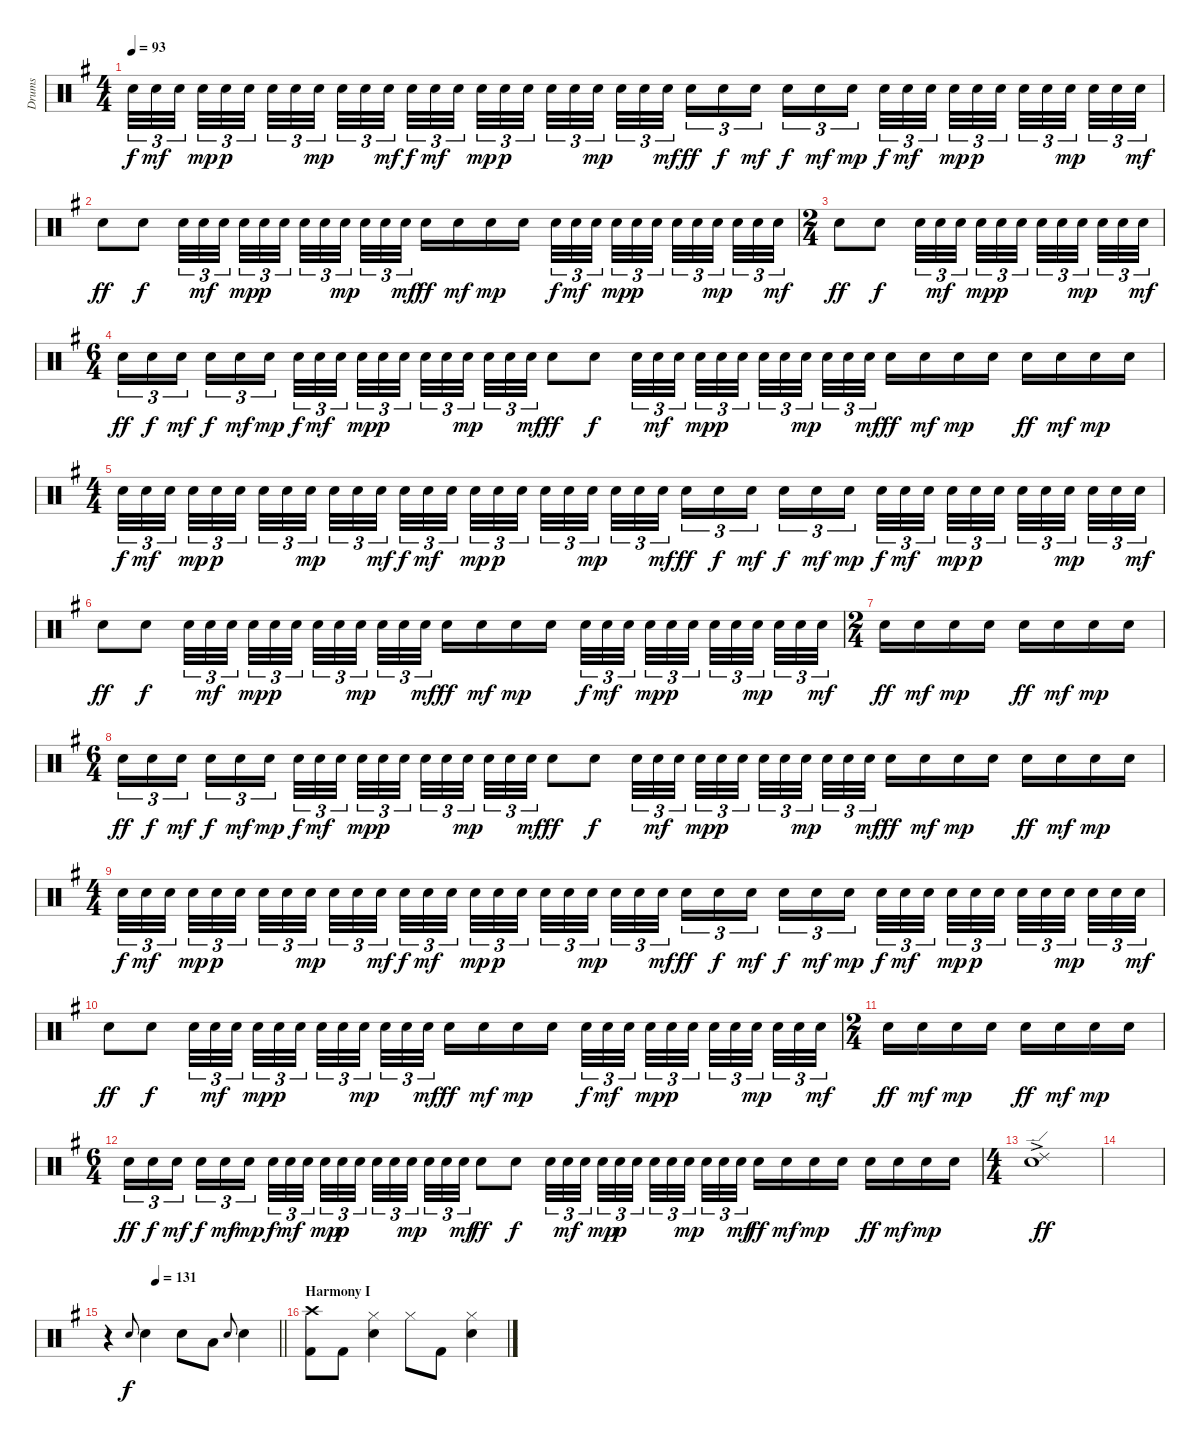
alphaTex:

\track ("Drums" "Drums") {instrument percussion}
\staff {score}
\articulation defaults
\ts (4 4)
\tempo 93
\clef neutral
\ks g "Electric Snare (hit)".32{tu (3 2) dy f} "Electric Snare (hit)".32{tu (3 2) dy mf} "Electric Snare (hit)".32{tu (3 2) beam splitsecondary} "Electric Snare (hit)".32{tu (3 2) dy mp} "Electric Snare (hit)".32{tu (3 2) dy p} "Electric Snare (hit)".32{tu (3 2) beam splitsecondary} "Electric Snare (hit)".32{tu (3 2)} "Electric Snare (hit)".32{tu (3 2)} "Electric Snare (hit)".32{tu (3 2) dy mp beam splitsecondary} "Electric Snare (hit)".32{tu (3 2)} "Electric Snare (hit)".32{tu (3 2)} "Electric Snare (hit)".32{tu (3 2) dy mf} "Electric Snare (hit)".32{tu (3 2) dy f} "Electric Snare (hit)".32{tu (3 2) dy mf} "Electric Snare (hit)".32{tu (3 2) beam splitsecondary} "Electric Snare (hit)".32{tu (3 2) dy mp} "Electric Snare (hit)".32{tu (3 2) dy p} "Electric Snare (hit)".32{tu (3 2) beam splitsecondary} "Electric Snare (hit)".32{tu (3 2)} "Electric Snare (hit)".32{tu (3 2)} "Electric Snare (hit)".32{tu (3 2) dy mp beam splitsecondary} "Electric Snare (hit)".32{tu (3 2)} "Electric Snare (hit)".32{tu (3 2)} "Electric Snare (hit)".32{tu (3 2) dy mf} "Electric Snare (hit)".16{tu (3 2) dy ff} "Electric Snare (hit)".16{tu (3 2) dy f} "Electric Snare (hit)".16{tu (3 2) dy mf beam splitsecondary} "Electric Snare (hit)".16{tu (3 2) dy f} "Electric Snare (hit)".16{tu (3 2) dy mf} "Electric Snare (hit)".16{tu (3 2) dy mp} "Electric Snare (hit)".32{tu (3 2) dy f} "Electric Snare (hit)".32{tu (3 2) dy mf} "Electric Snare (hit)".32{tu (3 2) beam splitsecondary} "Electric Snare (hit)".32{tu (3 2) dy mp} "Electric Snare (hit)".32{tu (3 2) dy p} "Electric Snare (hit)".32{tu (3 2) beam splitsecondary} "Electric Snare (hit)".32{tu (3 2)} "Electric Snare (hit)".32{tu (3 2)} "Electric Snare (hit)".32{tu (3 2) dy mp beam splitsecondary} "Electric Snare (hit)".32{tu (3 2)} "Electric Snare (hit)".32{tu (3 2)} "Electric Snare (hit)".32{tu (3 2) dy mf}
|
"Electric Snare (hit)".8{dy ff} "Electric Snare (hit)".8{dy f} "Electric Snare (hit)".32{tu (3 2)} "Electric Snare (hit)".32{tu (3 2) dy mf} "Electric Snare (hit)".32{tu (3 2) beam splitsecondary} "Electric Snare (hit)".32{tu (3 2) dy mp} "Electric Snare (hit)".32{tu (3 2) dy p} "Electric Snare (hit)".32{tu (3 2) beam splitsecondary} "Electric Snare (hit)".32{tu (3 2)} "Electric Snare (hit)".32{tu (3 2)} "Electric Snare (hit)".32{tu (3 2) dy mp beam splitsecondary} "Electric Snare (hit)".32{tu (3 2)} "Electric Snare (hit)".32{tu (3 2)} "Electric Snare (hit)".32{tu (3 2) dy mf} "Electric Snare (hit)".16{dy ff} "Electric Snare (hit)".16{dy mf} "Electric Snare (hit)".16{dy mp} "Electric Snare (hit)".16 "Electric Snare (hit)".32{tu (3 2) dy f} "Electric Snare (hit)".32{tu (3 2) dy mf} "Electric Snare (hit)".32{tu (3 2) beam splitsecondary} "Electric Snare (hit)".32{tu (3 2) dy mp} "Electric Snare (hit)".32{tu (3 2) dy p} "Electric Snare (hit)".32{tu (3 2) beam splitsecondary} "Electric Snare (hit)".32{tu (3 2)} "Electric Snare (hit)".32{tu (3 2)} "Electric Snare (hit)".32{tu (3 2) dy mp beam splitsecondary} "Electric Snare (hit)".32{tu (3 2)} "Electric Snare (hit)".32{tu (3 2)} "Electric Snare (hit)".32{tu (3 2) dy mf} |
\ts (2 4)
"Electric Snare (hit)".8{dy ff} "Electric Snare (hit)".8{dy f} "Electric Snare (hit)".32{tu (3 2)} "Electric Snare (hit)".32{tu (3 2) dy mf} "Electric Snare (hit)".32{tu (3 2) beam splitsecondary} "Electric Snare (hit)".32{tu (3 2) dy mp} "Electric Snare (hit)".32{tu (3 2) dy p} "Electric Snare (hit)".32{tu (3 2) beam splitsecondary} "Electric Snare (hit)".32{tu (3 2)} "Electric Snare (hit)".32{tu (3 2)} "Electric Snare (hit)".32{tu (3 2) dy mp beam splitsecondary} "Electric Snare (hit)".32{tu (3 2)} "Electric Snare (hit)".32{tu (3 2)} "Electric Snare (hit)".32{tu (3 2) dy mf} |
\ts (6 4)
"Electric Snare (hit)".16{tu (3 2) dy ff} "Electric Snare (hit)".16{tu (3 2) dy f} "Electric Snare (hit)".16{tu (3 2) dy mf beam splitsecondary} "Electric Snare (hit)".16{tu (3 2) dy f} "Electric Snare (hit)".16{tu (3 2) dy mf} "Electric Snare (hit)".16{tu (3 2) dy mp beam splitsecondary} "Electric Snare (hit)".32{tu (3 2) dy f} "Electric Snare (hit)".32{tu (3 2) dy mf} "Electric Snare (hit)".32{tu (3 2) beam splitsecondary} "Electric Snare (hit)".32{tu (3 2) dy mp} "Electric Snare (hit)".32{tu (3 2) dy p} "Electric Snare (hit)".32{tu (3 2) beam splitsecondary} "Electric Snare (hit)".32{tu (3 2)} "Electric Snare (hit)".32{tu (3 2)} "Electric Snare (hit)".32{tu (3 2) dy mp beam splitsecondary} "Electric Snare (hit)".32{tu (3 2)} "Electric Snare (hit)".32{tu (3 2)} "Electric Snare (hit)".32{tu (3 2) dy mf} "Electric Snare (hit)".8{dy ff} "Electric Snare (hit)".8{dy f} "Electric Snare (hit)".32{tu (3 2)} "Electric Snare (hit)".32{tu (3 2) dy mf} "Electric Snare (hit)".32{tu (3 2) beam splitsecondary} "Electric Snare (hit)".32{tu (3 2) dy mp} "Electric Snare (hit)".32{tu (3 2) dy p} "Electric Snare (hit)".32{tu (3 2) beam splitsecondary} "Electric Snare (hit)".32{tu (3 2)} "Electric Snare (hit)".32{tu (3 2)} "Electric Snare (hit)".32{tu (3 2) dy mp beam splitsecondary} "Electric Snare (hit)".32{tu (3 2)} "Electric Snare (hit)".32{tu (3 2)} "Electric Snare (hit)".32{tu (3 2) dy mf beam splitsecondary} "Electric Snare (hit)".16{dy ff} "Electric Snare (hit)".16{dy mf} "Electric Snare (hit)".16{dy mp} "Electric Snare (hit)".16 "Electric Snare (hit)".16{dy ff} "Electric Snare (hit)".16{dy mf} "Electric Snare (hit)".16{dy mp} "Electric Snare (hit)".16 |
\ts (4 4)
"Electric Snare (hit)".32{tu (3 2) dy f} "Electric Snare (hit)".32{tu (3 2) dy mf} "Electric Snare (hit)".32{tu (3 2) beam splitsecondary} "Electric Snare (hit)".32{tu (3 2) dy mp} "Electric Snare (hit)".32{tu (3 2) dy p} "Electric Snare (hit)".32{tu (3 2) beam splitsecondary} "Electric Snare (hit)".32{tu (3 2)} "Electric Snare (hit)".32{tu (3 2)} "Electric Snare (hit)".32{tu (3 2) dy mp beam splitsecondary} "Electric Snare (hit)".32{tu (3 2)} "Electric Snare (hit)".32{tu (3 2)} "Electric Snare (hit)".32{tu (3 2) dy mf} "Electric Snare (hit)".32{tu (3 2) dy f} "Electric Snare (hit)".32{tu (3 2) dy mf} "Electric Snare (hit)".32{tu (3 2) beam splitsecondary} "Electric Snare (hit)".32{tu (3 2) dy mp} "Electric Snare (hit)".32{tu (3 2) dy p} "Electric Snare (hit)".32{tu (3 2) beam splitsecondary} "Electric Snare (hit)".32{tu (3 2)} "Electric Snare (hit)".32{tu (3 2)} "Electric Snare (hit)".32{tu (3 2) dy mp beam splitsecondary} "Electric Snare (hit)".32{tu (3 2)} "Electric Snare (hit)".32{tu (3 2)} "Electric Snare (hit)".32{tu (3 2) dy mf} "Electric Snare (hit)".16{tu (3 2) dy ff} "Electric Snare (hit)".16{tu (3 2) dy f} "Electric Snare (hit)".16{tu (3 2) dy mf beam splitsecondary} "Electric Snare (hit)".16{tu (3 2) dy f} "Electric Snare (hit)".16{tu (3 2) dy mf} "Electric Snare (hit)".16{tu (3 2) dy mp} "Electric Snare (hit)".32{tu (3 2) dy f} "Electric Snare (hit)".32{tu (3 2) dy mf} "Electric Snare (hit)".32{tu (3 2) beam splitsecondary} "Electric Snare (hit)".32{tu (3 2) dy mp} "Electric Snare (hit)".32{tu (3 2) dy p} "Electric Snare (hit)".32{tu (3 2) beam splitsecondary} "Electric Snare (hit)".32{tu (3 2)} "Electric Snare (hit)".32{tu (3 2)} "Electric Snare (hit)".32{tu (3 2) dy mp beam splitsecondary} "Electric Snare (hit)".32{tu (3 2)} "Electric Snare (hit)".32{tu (3 2)} "Electric Snare (hit)".32{tu (3 2) dy mf} |
"Electric Snare (hit)".8{dy ff} "Electric Snare (hit)".8{dy f} "Electric Snare (hit)".32{tu (3 2)} "Electric Snare (hit)".32{tu (3 2) dy mf} "Electric Snare (hit)".32{tu (3 2) beam splitsecondary} "Electric Snare (hit)".32{tu (3 2) dy mp} "Electric Snare (hit)".32{tu (3 2) dy p} "Electric Snare (hit)".32{tu (3 2) beam splitsecondary} "Electric Snare (hit)".32{tu (3 2)} "Electric Snare (hit)".32{tu (3 2)} "Electric Snare (hit)".32{tu (3 2) dy mp beam splitsecondary} "Electric Snare (hit)".32{tu (3 2)} "Electric Snare (hit)".32{tu (3 2)} "Electric Snare (hit)".32{tu (3 2) dy mf} "Electric Snare (hit)".16{dy ff} "Electric Snare (hit)".16{dy mf} "Electric Snare (hit)".16{dy mp} "Electric Snare (hit)".16 "Electric Snare (hit)".32{tu (3 2) dy f} "Electric Snare (hit)".32{tu (3 2) dy mf} "Electric Snare (hit)".32{tu (3 2) beam splitsecondary} "Electric Snare (hit)".32{tu (3 2) dy mp} "Electric Snare (hit)".32{tu (3 2) dy p} "Electric Snare (hit)".32{tu (3 2) beam splitsecondary} "Electric Snare (hit)".32{tu (3 2)} "Electric Snare (hit)".32{tu (3 2)} "Electric Snare (hit)".32{tu (3 2) dy mp beam splitsecondary} "Electric Snare (hit)".32{tu (3 2)} "Electric Snare (hit)".32{tu (3 2)} "Electric Snare (hit)".32{tu (3 2) dy mf} |
\ts (2 4)
"Electric Snare (hit)".16{dy ff} "Electric Snare (hit)".16{dy mf} "Electric Snare (hit)".16{dy mp} "Electric Snare (hit)".16 "Electric Snare (hit)".16{dy ff} "Electric Snare (hit)".16{dy mf} "Electric Snare (hit)".16{dy mp} "Electric Snare (hit)".16 |
\ts (6 4)
"Electric Snare (hit)".16{tu (3 2) dy ff} "Electric Snare (hit)".16{tu (3 2) dy f} "Electric Snare (hit)".16{tu (3 2) dy mf beam splitsecondary} "Electric Snare (hit)".16{tu (3 2) dy f} "Electric Snare (hit)".16{tu (3 2) dy mf} "Electric Snare (hit)".16{tu (3 2) dy mp beam splitsecondary} "Electric Snare (hit)".32{tu (3 2) dy f} "Electric Snare (hit)".32{tu (3 2) dy mf} "Electric Snare (hit)".32{tu (3 2) beam splitsecondary} "Electric Snare (hit)".32{tu (3 2) dy mp} "Electric Snare (hit)".32{tu (3 2) dy p} "Electric Snare (hit)".32{tu (3 2) beam splitsecondary} "Electric Snare (hit)".32{tu (3 2)} "Electric Snare (hit)".32{tu (3 2)} "Electric Snare (hit)".32{tu (3 2) dy mp beam splitsecondary} "Electric Snare (hit)".32{tu (3 2)} "Electric Snare (hit)".32{tu (3 2)} "Electric Snare (hit)".32{tu (3 2) dy mf} "Electric Snare (hit)".8{dy ff} "Electric Snare (hit)".8{dy f} "Electric Snare (hit)".32{tu (3 2)} "Electric Snare (hit)".32{tu (3 2) dy mf} "Electric Snare (hit)".32{tu (3 2) beam splitsecondary} "Electric Snare (hit)".32{tu (3 2) dy mp} "Electric Snare (hit)".32{tu (3 2) dy p} "Electric Snare (hit)".32{tu (3 2) beam splitsecondary} "Electric Snare (hit)".32{tu (3 2)} "Electric Snare (hit)".32{tu (3 2)} "Electric Snare (hit)".32{tu (3 2) dy mp beam splitsecondary} "Electric Snare (hit)".32{tu (3 2)} "Electric Snare (hit)".32{tu (3 2)} "Electric Snare (hit)".32{tu (3 2) dy mf beam splitsecondary} "Electric Snare (hit)".16{dy ff} "Electric Snare (hit)".16{dy mf} "Electric Snare (hit)".16{dy mp} "Electric Snare (hit)".16 "Electric Snare (hit)".16{dy ff} "Electric Snare (hit)".16{dy mf} "Electric Snare (hit)".16{dy mp} "Electric Snare (hit)".16 |
\ts (4 4)
"Electric Snare (hit)".32{tu (3 2) dy f} "Electric Snare (hit)".32{tu (3 2) dy mf} "Electric Snare (hit)".32{tu (3 2) beam splitsecondary} "Electric Snare (hit)".32{tu (3 2) dy mp} "Electric Snare (hit)".32{tu (3 2) dy p} "Electric Snare (hit)".32{tu (3 2) beam splitsecondary} "Electric Snare (hit)".32{tu (3 2)} "Electric Snare (hit)".32{tu (3 2)} "Electric Snare (hit)".32{tu (3 2) dy mp beam splitsecondary} "Electric Snare (hit)".32{tu (3 2)} "Electric Snare (hit)".32{tu (3 2)} "Electric Snare (hit)".32{tu (3 2) dy mf} "Electric Snare (hit)".32{tu (3 2) dy f} "Electric Snare (hit)".32{tu (3 2) dy mf} "Electric Snare (hit)".32{tu (3 2) beam splitsecondary} "Electric Snare (hit)".32{tu (3 2) dy mp} "Electric Snare (hit)".32{tu (3 2) dy p} "Electric Snare (hit)".32{tu (3 2) beam splitsecondary} "Electric Snare (hit)".32{tu (3 2)} "Electric Snare (hit)".32{tu (3 2)} "Electric Snare (hit)".32{tu (3 2) dy mp beam splitsecondary} "Electric Snare (hit)".32{tu (3 2)} "Electric Snare (hit)".32{tu (3 2)} "Electric Snare (hit)".32{tu (3 2) dy mf} "Electric Snare (hit)".16{tu (3 2) dy ff} "Electric Snare (hit)".16{tu (3 2) dy f} "Electric Snare (hit)".16{tu (3 2) dy mf beam splitsecondary} "Electric Snare (hit)".16{tu (3 2) dy f} "Electric Snare (hit)".16{tu (3 2) dy mf} "Electric Snare (hit)".16{tu (3 2) dy mp} "Electric Snare (hit)".32{tu (3 2) dy f} "Electric Snare (hit)".32{tu (3 2) dy mf} "Electric Snare (hit)".32{tu (3 2) beam splitsecondary} "Electric Snare (hit)".32{tu (3 2) dy mp} "Electric Snare (hit)".32{tu (3 2) dy p} "Electric Snare (hit)".32{tu (3 2) beam splitsecondary} "Electric Snare (hit)".32{tu (3 2)} "Electric Snare (hit)".32{tu (3 2)} "Electric Snare (hit)".32{tu (3 2) dy mp beam splitsecondary} "Electric Snare (hit)".32{tu (3 2)} "Electric Snare (hit)".32{tu (3 2)} "Electric Snare (hit)".32{tu (3 2) dy mf} |
"Electric Snare (hit)".8{dy ff} "Electric Snare (hit)".8{dy f} "Electric Snare (hit)".32{tu (3 2)} "Electric Snare (hit)".32{tu (3 2) dy mf} "Electric Snare (hit)".32{tu (3 2) beam splitsecondary} "Electric Snare (hit)".32{tu (3 2) dy mp} "Electric Snare (hit)".32{tu (3 2) dy p} "Electric Snare (hit)".32{tu (3 2) beam splitsecondary} "Electric Snare (hit)".32{tu (3 2)} "Electric Snare (hit)".32{tu (3 2)} "Electric Snare (hit)".32{tu (3 2) dy mp beam splitsecondary} "Electric Snare (hit)".32{tu (3 2)} "Electric Snare (hit)".32{tu (3 2)} "Electric Snare (hit)".32{tu (3 2) dy mf} "Electric Snare (hit)".16{dy ff} "Electric Snare (hit)".16{dy mf} "Electric Snare (hit)".16{dy mp} "Electric Snare (hit)".16 "Electric Snare (hit)".32{tu (3 2) dy f} "Electric Snare (hit)".32{tu (3 2) dy mf} "Electric Snare (hit)".32{tu (3 2) beam splitsecondary} "Electric Snare (hit)".32{tu (3 2) dy mp} "Electric Snare (hit)".32{tu (3 2) dy p} "Electric Snare (hit)".32{tu (3 2) beam splitsecondary} "Electric Snare (hit)".32{tu (3 2)} "Electric Snare (hit)".32{tu (3 2)} "Electric Snare (hit)".32{tu (3 2) dy mp beam splitsecondary} "Electric Snare (hit)".32{tu (3 2)} "Electric Snare (hit)".32{tu (3 2)} "Electric Snare (hit)".32{tu (3 2) dy mf} |
\ts (2 4)
"Electric Snare (hit)".16{dy ff} "Electric Snare (hit)".16{dy mf} "Electric Snare (hit)".16{dy mp} "Electric Snare (hit)".16 "Electric Snare (hit)".16{dy ff} "Electric Snare (hit)".16{dy mf} "Electric Snare (hit)".16{dy mp} "Electric Snare (hit)".16 |
\ts (6 4)
"Electric Snare (hit)".16{tu (3 2) dy ff} "Electric Snare (hit)".16{tu (3 2) dy f} "Electric Snare (hit)".16{tu (3 2) dy mf beam splitsecondary} "Electric Snare (hit)".16{tu (3 2) dy f} "Electric Snare (hit)".16{tu (3 2) dy mf} "Electric Snare (hit)".16{tu (3 2) dy mp beam splitsecondary} "Electric Snare (hit)".32{tu (3 2) dy f} "Electric Snare (hit)".32{tu (3 2) dy mf} "Electric Snare (hit)".32{tu (3 2) beam splitsecondary} "Electric Snare (hit)".32{tu (3 2) dy mp} "Electric Snare (hit)".32{tu (3 2) dy p} "Electric Snare (hit)".32{tu (3 2) beam splitsecondary} "Electric Snare (hit)".32{tu (3 2)} "Electric Snare (hit)".32{tu (3 2)} "Electric Snare (hit)".32{tu (3 2) dy mp beam splitsecondary} "Electric Snare (hit)".32{tu (3 2)} "Electric Snare (hit)".32{tu (3 2)} "Electric Snare (hit)".32{tu (3 2) dy mf} "Electric Snare (hit)".8{dy ff} "Electric Snare (hit)".8{dy f} "Electric Snare (hit)".32{tu (3 2)} "Electric Snare (hit)".32{tu (3 2) dy mf} "Electric Snare (hit)".32{tu (3 2) beam splitsecondary} "Electric Snare (hit)".32{tu (3 2) dy mp} "Electric Snare (hit)".32{tu (3 2) dy p} "Electric Snare (hit)".32{tu (3 2) beam splitsecondary} "Electric Snare (hit)".32{tu (3 2)} "Electric Snare (hit)".32{tu (3 2)} "Electric Snare (hit)".32{tu (3 2) dy mp beam splitsecondary} "Electric Snare (hit)".32{tu (3 2)} "Electric Snare (hit)".32{tu (3 2)} "Electric Snare (hit)".32{tu (3 2) dy mf beam splitsecondary} "Electric Snare (hit)".16{dy ff} "Electric Snare (hit)".16{dy mf} "Electric Snare (hit)".16{dy mp} "Electric Snare (hit)".16 "Electric Snare (hit)".16{dy ff} "Electric Snare (hit)".16{dy mf} "Electric Snare (hit)".16{dy mp} "Electric Snare (hit)".16 |
\ts (4 4)
("Ride (edge) 2"{ac} "Electric Snare (hit)").1{dy ff} |
|
\tempo (131 0.28125)
\barLineRight lightlight
r.4 "Electric Snare (hit)".8{gr onbeat dy f} "Electric Snare (hit)".4{volume 13} "Electric Snare (hit)".8 "Low Tom (hit)".8 "Electric Snare (hit)".8{gr onbeat} "Electric Snare (hit)".4 |
\section ("" "Harmony I")
("Crash high (hit)" "Kick (hit) 2").8 "Kick (hit) 2".8 ("Hi-Hat (closed)" "Electric Snare (hit)").4 "Hi-Hat (closed)".8 "Kick (hit) 2".8 ("Hi-Hat (closed)" "Electric Snare (hit)").4
